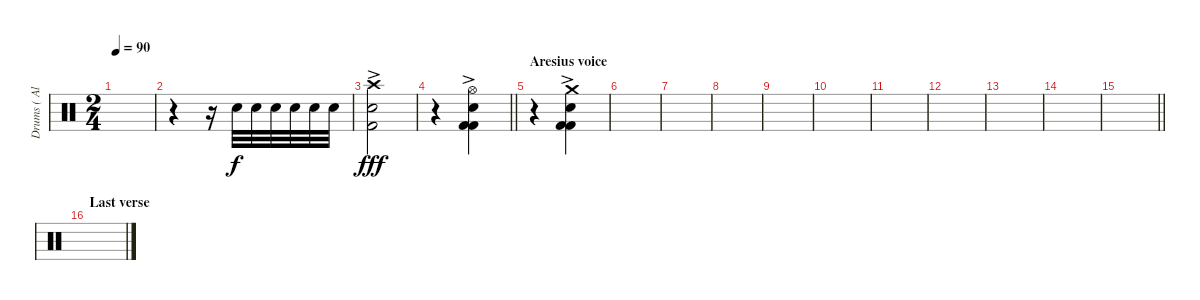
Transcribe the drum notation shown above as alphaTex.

\track ("Drums ( Alex Holzwarth)" "Drums ( Al") {instrument percussion}
\staff {score}
\articulation defaults
\ts (2 4)
\tempo 90
\clef neutral
\ks c
|
r.4{volume 10} r.16 "Electric Snare (hit)".32{dy f} "Electric Snare (hit)".32 "Electric Snare (hit)".32 "Electric Snare (hit)".32 "Electric Snare (hit)".32 "Electric Snare (hit)".32 |
("Crash high (hit)"{ac} "Snare (hit) 2"{ac} "Kick (hit) 2"{ac}).2{dy fff volume 16} |
\barLineRight lightlight
r.4 ("Hi-Hat (open)"{ac} "Snare (hit) 2" "Kick (hit) 2"{ac} "Kick (hit) 2"{ac}).4 |
\section ("" "Aresius voice")
r.4 ("Crash medium (hit)"{ac} "Snare (hit) 2" "Kick (hit) 2"{ac} "Kick (hit) 2"{ac}).4 |
|
|
|
|
|
|
|
|
|
\barLineRight lightlight
|
\section ("" "Last verse")
